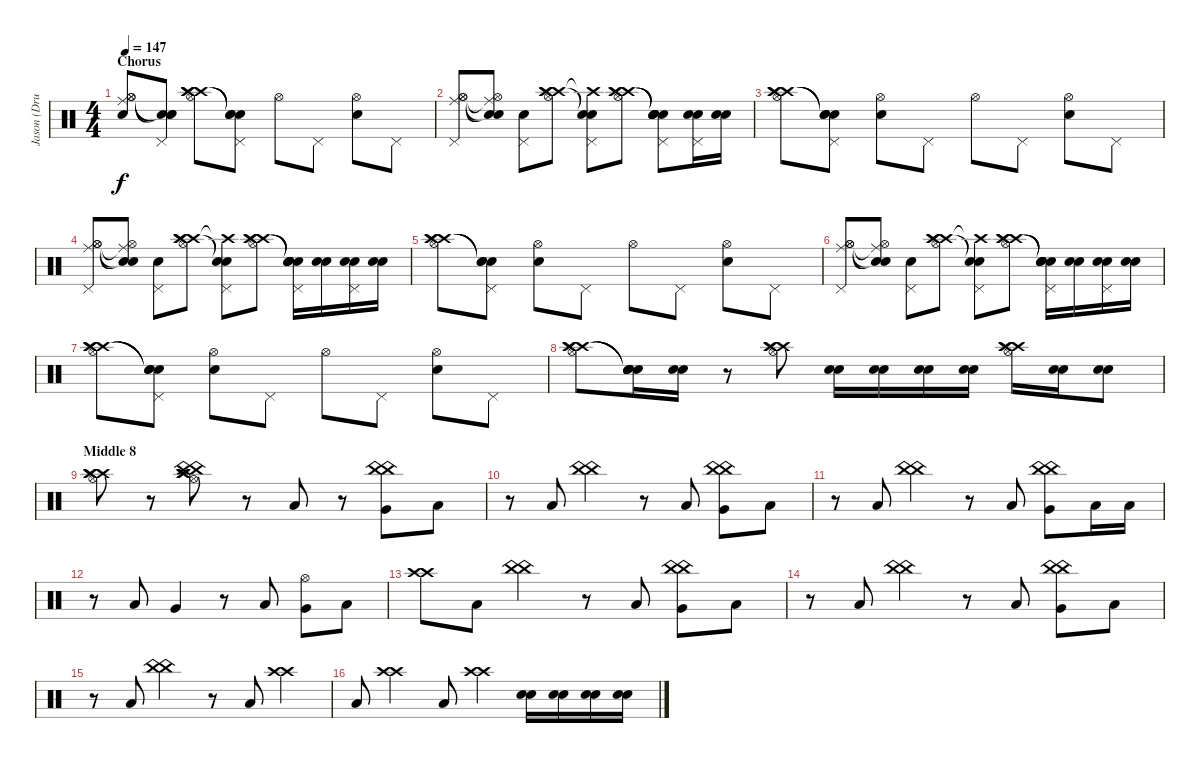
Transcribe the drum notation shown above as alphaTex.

\track ("Jason (Drums)" "Jason (Dru") {instrument percussion}
\staff {score}
\articulation defaults
\ts (4 4)
\section ("" "Chorus")
\tempo 147
\clef neutral
\ks c
("Ride (middle)" "Hi-Hat (open)" "Hi-Hat (open)" "Snare (hit) 2").8{dy f} ("Snare (hit)"{t} "Snare (hit)"{t} "Snare (hit)"{t} "Pedal Hi-Hat (hit)").8 ("Crash high (hit)" "Crash high (hit)" "Crash high (hit)" "Hi-Hat (open)").8 ("Snare (hit)"{t} "Snare (hit)"{t} "Snare (hit)"{t} "Pedal Hi-Hat (hit)").8 "Hi-Hat (open)".8 "Pedal Hi-Hat (hit)".8 ("Electric Snare (hit)" "Hi-Hat (open)").8 "Pedal Hi-Hat (hit)".8 |
("Ride (middle)" "Hi-Hat (open)" "Hi-Hat (open)" "Pedal Hi-Hat (hit)").8 ("Snare (hit)"{t} "Ride (middle)"{t} "Snare (hit)"{t} "Hi-Hat (open)").8 ("Electric Snare (hit)" "Pedal Hi-Hat (hit)").8 ("Crash high (hit)" "Crash high (hit)" "Crash high (hit)" "Hi-Hat (open)").8 ("Snare (hit)"{t} "Crash high (hit)"{t} "Snare (hit)"{t} "Pedal Hi-Hat (hit)").8 ("Crash high (hit)" "Crash high (hit)" "Crash high (hit)" "Hi-Hat (open)").8 ("Snare (hit)"{t} "Snare (hit) 2"{t} "Snare (hit)"{t} "Pedal Hi-Hat (hit)" "Snare (hit) 2" "Electric Snare (hit)").8 ("Pedal Hi-Hat (hit)" "Snare (hit) 2" "Electric Snare (hit)").16 ("Snare (hit) 2" "Electric Snare (hit)").16 |
("Crash high (hit)" "Crash high (hit)" "Crash high (hit)" "Hi-Hat (open)").8 ("Snare (hit)"{t} "Snare (hit)"{t} "Snare (hit)"{t} "Pedal Hi-Hat (hit)").8 ("Electric Snare (hit)" "Hi-Hat (open)").8 "Pedal Hi-Hat (hit)".8 "Hi-Hat (open)".8 "Pedal Hi-Hat (hit)".8 ("Electric Snare (hit)" "Hi-Hat (open)").8 "Pedal Hi-Hat (hit)".8 |
("Ride (middle)" "Hi-Hat (open)" "Hi-Hat (open)" "Pedal Hi-Hat (hit)").8 ("Snare (hit)"{t} "Ride (middle)"{t} "Snare (hit)"{t} "Hi-Hat (open)").8 ("Electric Snare (hit)" "Pedal Hi-Hat (hit)").8 ("Crash high (hit)" "Crash high (hit)" "Crash high (hit)" "Hi-Hat (open)").8 ("Snare (hit)"{t} "Crash high (hit)"{t} "Snare (hit)"{t} "Pedal Hi-Hat (hit)").8 ("Crash high (hit)" "Crash high (hit)" "Crash high (hit)" "Hi-Hat (open)").8 ("Snare (hit)"{t} "Electric Snare (hit)"{t} "Snare (hit)"{t} "Pedal Hi-Hat (hit)" "Snare (hit) 2" "Electric Snare (hit)").16 ("Snare (hit) 2" "Electric Snare (hit)").16 ("Pedal Hi-Hat (hit)" "Snare (hit) 2" "Electric Snare (hit)").16 ("Snare (hit) 2" "Electric Snare (hit)").16 |
("Crash high (hit)" "Crash high (hit)" "Crash high (hit)" "Hi-Hat (open)").8 ("Snare (hit)"{t} "Snare (hit)"{t} "Snare (hit)"{t} "Pedal Hi-Hat (hit)").8 ("Electric Snare (hit)" "Hi-Hat (open)").8 "Pedal Hi-Hat (hit)".8 "Hi-Hat (open)".8 "Pedal Hi-Hat (hit)".8 ("Electric Snare (hit)" "Hi-Hat (open)").8 "Pedal Hi-Hat (hit)".8 |
("Ride (middle)" "Hi-Hat (open)" "Hi-Hat (open)" "Pedal Hi-Hat (hit)").8 ("Snare (hit)"{t} "Ride (middle)"{t} "Snare (hit)"{t} "Hi-Hat (open)").8 ("Electric Snare (hit)" "Pedal Hi-Hat (hit)").8 ("Crash high (hit)" "Crash high (hit)" "Crash high (hit)" "Hi-Hat (open)").8 ("Snare (hit)"{t} "Crash high (hit)"{t} "Snare (hit)"{t} "Pedal Hi-Hat (hit)").8 ("Crash high (hit)" "Crash high (hit)" "Crash high (hit)" "Hi-Hat (open)").8 ("Snare (hit)"{t} "Electric Snare (hit)"{t} "Snare (hit)"{t} "Pedal Hi-Hat (hit)" "Snare (hit) 2" "Electric Snare (hit)").16 ("Snare (hit) 2" "Electric Snare (hit)").16 ("Pedal Hi-Hat (hit)" "Snare (hit) 2" "Electric Snare (hit)").16 ("Snare (hit) 2" "Electric Snare (hit)").16 |
("Crash high (hit)" "Crash high (hit)" "Crash high (hit)" "Hi-Hat (open)").8 ("Snare (hit)"{t} "Snare (hit)"{t} "Snare (hit)"{t} "Pedal Hi-Hat (hit)").8 ("Electric Snare (hit)" "Hi-Hat (open)").8 "Pedal Hi-Hat (hit)".8 "Hi-Hat (open)".8 "Pedal Hi-Hat (hit)".8 ("Electric Snare (hit)" "Hi-Hat (open)").8 "Pedal Hi-Hat (hit)".8 |
("Crash high (hit)" "Crash high (hit)" "Crash high (hit)" "Hi-Hat (open)").8 ("Snare (hit)"{t} "Snare (hit)"{t} "Snare (hit)"{t} "Snare (hit) 2" "Electric Snare (hit)").16 ("Snare (hit) 2" "Electric Snare (hit)").16 r.8 ("Crash high (hit)" "Crash high (hit)" "Crash high (hit)" "Hi-Hat (open)").8 ("Snare (hit) 2" "Electric Snare (hit)").16 ("Snare (hit) 2" "Electric Snare (hit)").16 ("Snare (hit) 2" "Electric Snare (hit)").16 ("Snare (hit) 2" "Electric Snare (hit)").16 ("Crash high (hit)" "Crash high (hit)" "Crash high (hit)" "Hi-Hat (open)").16 ("Snare (hit) 2" "Electric Snare (hit)").16 ("Snare (hit) 2" "Electric Snare (hit)").8 |
\section ("" "Middle 8")
("Crash high (hit)" "Crash high (hit)" "Crash high (hit)" "Hi-Hat (open)").8 r.8 ("Crash high (hit)" "Crash high (hit)" "Crash high (hit)" "Hi-Hat (open)" "China (hit)" "China (hit)").8 r.8 "Low Tom (hit)".8 r.8 ("China (hit)" "China (hit)" "Very Low Tom (hit)").8 "Low Floor Tom (hit)".8 |
r.8 "Low Tom (hit)".8 ("China (hit)" "China (hit)").4 r.8 "Low Tom (hit)".8 ("China (hit)" "China (hit)" "Very Low Tom (hit)").8 "Low Floor Tom (hit)".8 |
r.8 "Low Tom (hit)".8 ("China (hit)" "China (hit)").4 r.8 "Low Tom (hit)".8 ("China (hit)" "China (hit)" "Very Low Tom (hit)").8 "Low Floor Tom (hit)".16 "Low Floor Tom (hit)".16 |
r.8 "Low Tom (hit)".8 "Very Low Tom (hit)".4 r.8 "Low Tom (hit)".8 ("Hi-Hat (open)" "Very Low Tom (hit)").8 "Low Floor Tom (hit)".8 |
("Crash high (hit)" "Crash high (hit)").8 "Low Tom (hit)".8 ("China (hit)" "China (hit)").4 r.8 "Low Tom (hit)".8 ("China (hit)" "China (hit)" "Very Low Tom (hit)").8 "Low Floor Tom (hit)".8 |
r.8 "Low Tom (hit)".8 ("China (hit)" "China (hit)").4 r.8 "Low Tom (hit)".8 ("China (hit)" "China (hit)" "Very Low Tom (hit)").8 "Low Floor Tom (hit)".8 |
r.8 "Low Tom (hit)".8 ("China (hit)" "China (hit)").4 r.8 "Low Tom (hit)".8 ("Crash high (hit)" "Crash high (hit)").4 |
"Low Tom (hit)".8 ("Crash high (hit)" "Crash high (hit)").4 "Low Tom (hit)".8 ("Crash high (hit)" "Crash high (hit)").4 ("Snare (hit) 2" "Electric Snare (hit)").16 ("Snare (hit) 2" "Electric Snare (hit)").16 ("Snare (hit) 2" "Electric Snare (hit)").16 ("Snare (hit) 2" "Electric Snare (hit)").16
